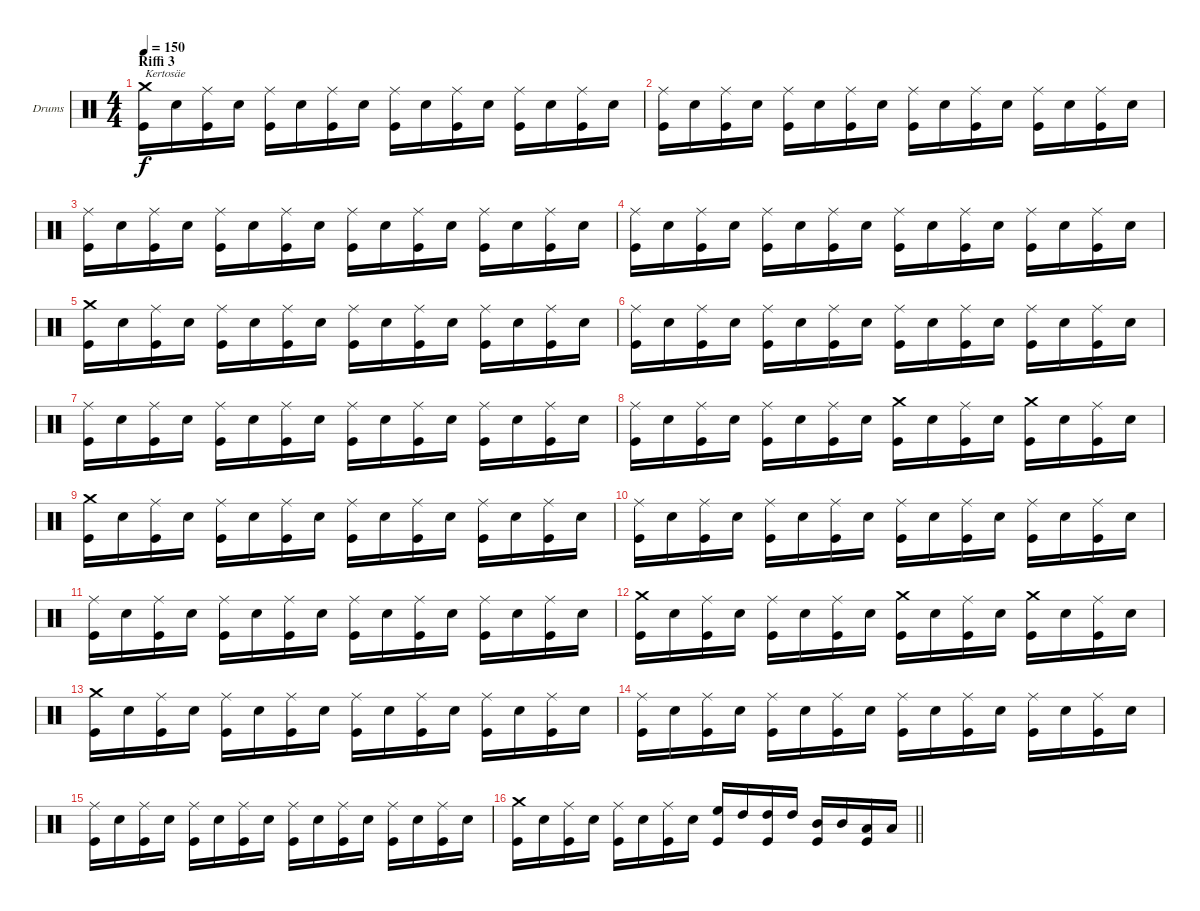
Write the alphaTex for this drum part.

\bracketExtendMode groupsimilarinstruments
\firstSystemTrackNameOrientation horizontal
\otherSystemsTrackNameOrientation horizontal
\track ("Drumkit" "Drums") {instrument percussion}
\staff {score}
\articulation defaults
\ts (4 4)
\section ("" "Riffi 3")
\tempo 150
\clef neutral
\ks c
("Crash medium (hit)" "Kick (hit)").16{txt "Kertosäe" dy f} "Snare (hit) 2".16 ("Ride (middle)" "Kick (hit)").16 "Snare (hit) 2".16 ("Ride (middle)" "Kick (hit)").16 "Snare (hit) 2".16 ("Ride (middle)" "Kick (hit)").16 "Snare (hit) 2".16 ("Ride (middle)" "Kick (hit)").16 "Snare (hit) 2".16 ("Ride (middle)" "Kick (hit)").16 "Snare (hit) 2".16 ("Ride (middle)" "Kick (hit)").16 "Snare (hit) 2".16 ("Ride (middle)" "Kick (hit)").16 "Snare (hit) 2".16 |
("Ride (middle)" "Kick (hit)").16 "Snare (hit) 2".16 ("Ride (middle)" "Kick (hit)").16 "Snare (hit) 2".16 ("Ride (middle)" "Kick (hit)").16 "Snare (hit) 2".16 ("Ride (middle)" "Kick (hit)").16 "Snare (hit) 2".16 ("Ride (middle)" "Kick (hit)").16 "Snare (hit) 2".16 ("Ride (middle)" "Kick (hit)").16 "Snare (hit) 2".16 ("Ride (middle)" "Kick (hit)").16 "Snare (hit) 2".16 ("Ride (middle)" "Kick (hit)").16 "Snare (hit) 2".16 |
("Ride (middle)" "Kick (hit)").16 "Snare (hit) 2".16 ("Ride (middle)" "Kick (hit)").16 "Snare (hit) 2".16 ("Ride (middle)" "Kick (hit)").16 "Snare (hit) 2".16 ("Ride (middle)" "Kick (hit)").16 "Snare (hit) 2".16 ("Ride (middle)" "Kick (hit)").16 "Snare (hit) 2".16 ("Ride (middle)" "Kick (hit)").16 "Snare (hit) 2".16 ("Ride (middle)" "Kick (hit)").16 "Snare (hit) 2".16 ("Ride (middle)" "Kick (hit)").16 "Snare (hit) 2".16 |
("Ride (middle)" "Kick (hit)").16 "Snare (hit) 2".16 ("Ride (middle)" "Kick (hit)").16 "Snare (hit) 2".16 ("Ride (middle)" "Kick (hit)").16 "Snare (hit) 2".16 ("Ride (middle)" "Kick (hit)").16 "Snare (hit) 2".16 ("Ride (middle)" "Kick (hit)").16 "Snare (hit) 2".16 ("Ride (middle)" "Kick (hit)").16 "Snare (hit) 2".16 ("Ride (middle)" "Kick (hit)").16 "Snare (hit) 2".16 ("Ride (middle)" "Kick (hit)").16 "Snare (hit) 2".16 |
("Crash medium (hit)" "Kick (hit)").16 "Snare (hit) 2".16 ("Ride (middle)" "Kick (hit)").16 "Snare (hit) 2".16 ("Ride (middle)" "Kick (hit)").16 "Snare (hit) 2".16 ("Ride (middle)" "Kick (hit)").16 "Snare (hit) 2".16 ("Ride (middle)" "Kick (hit)").16 "Snare (hit) 2".16 ("Ride (middle)" "Kick (hit)").16 "Snare (hit) 2".16 ("Ride (middle)" "Kick (hit)").16 "Snare (hit) 2".16 ("Ride (middle)" "Kick (hit)").16 "Snare (hit) 2".16 |
("Ride (middle)" "Kick (hit)").16 "Snare (hit) 2".16 ("Ride (middle)" "Kick (hit)").16 "Snare (hit) 2".16 ("Ride (middle)" "Kick (hit)").16 "Snare (hit) 2".16 ("Ride (middle)" "Kick (hit)").16 "Snare (hit) 2".16 ("Ride (middle)" "Kick (hit)").16 "Snare (hit) 2".16 ("Ride (middle)" "Kick (hit)").16 "Snare (hit) 2".16 ("Ride (middle)" "Kick (hit)").16 "Snare (hit) 2".16 ("Ride (middle)" "Kick (hit)").16 "Snare (hit) 2".16 |
("Ride (middle)" "Kick (hit)").16 "Snare (hit) 2".16 ("Ride (middle)" "Kick (hit)").16 "Snare (hit) 2".16 ("Ride (middle)" "Kick (hit)").16 "Snare (hit) 2".16 ("Ride (middle)" "Kick (hit)").16 "Snare (hit) 2".16 ("Ride (middle)" "Kick (hit)").16 "Snare (hit) 2".16 ("Ride (middle)" "Kick (hit)").16 "Snare (hit) 2".16 ("Ride (middle)" "Kick (hit)").16 "Snare (hit) 2".16 ("Ride (middle)" "Kick (hit)").16 "Snare (hit) 2".16 |
("Ride (middle)" "Kick (hit)").16 "Snare (hit) 2".16 ("Ride (middle)" "Kick (hit)").16 "Snare (hit) 2".16 ("Ride (middle)" "Kick (hit)").16 "Snare (hit) 2".16 ("Ride (middle)" "Kick (hit)").16 "Snare (hit) 2".16 ("Crash medium (hit)" "Kick (hit)").16 "Snare (hit) 2".16 ("Ride (middle)" "Kick (hit)").16 "Snare (hit) 2".16 ("Crash medium (hit)" "Kick (hit)").16 "Snare (hit) 2".16 ("Ride (middle)" "Kick (hit)").16 "Snare (hit) 2".16 |
("Crash medium (hit)" "Kick (hit)").16 "Snare (hit) 2".16 ("Ride (middle)" "Kick (hit)").16 "Snare (hit) 2".16 ("Ride (middle)" "Kick (hit)").16 "Snare (hit) 2".16 ("Ride (middle)" "Kick (hit)").16 "Snare (hit) 2".16 ("Ride (middle)" "Kick (hit)").16 "Snare (hit) 2".16 ("Ride (middle)" "Kick (hit)").16 "Snare (hit) 2".16 ("Ride (middle)" "Kick (hit)").16 "Snare (hit) 2".16 ("Ride (middle)" "Kick (hit)").16 "Snare (hit) 2".16 |
("Ride (middle)" "Kick (hit)").16 "Snare (hit) 2".16 ("Ride (middle)" "Kick (hit)").16 "Snare (hit) 2".16 ("Ride (middle)" "Kick (hit)").16 "Snare (hit) 2".16 ("Ride (middle)" "Kick (hit)").16 "Snare (hit) 2".16 ("Ride (middle)" "Kick (hit)").16 "Snare (hit) 2".16 ("Ride (middle)" "Kick (hit)").16 "Snare (hit) 2".16 ("Ride (middle)" "Kick (hit)").16 "Snare (hit) 2".16 ("Ride (middle)" "Kick (hit)").16 "Snare (hit) 2".16 |
("Ride (middle)" "Kick (hit)").16 "Snare (hit) 2".16 ("Ride (middle)" "Kick (hit)").16 "Snare (hit) 2".16 ("Ride (middle)" "Kick (hit)").16 "Snare (hit) 2".16 ("Ride (middle)" "Kick (hit)").16 "Snare (hit) 2".16 ("Ride (middle)" "Kick (hit)").16 "Snare (hit) 2".16 ("Ride (middle)" "Kick (hit)").16 "Snare (hit) 2".16 ("Ride (middle)" "Kick (hit)").16 "Snare (hit) 2".16 ("Ride (middle)" "Kick (hit)").16 "Snare (hit) 2".16 |
("Crash medium (hit)" "Kick (hit)").16 "Snare (hit) 2".16 ("Ride (middle)" "Kick (hit)").16 "Snare (hit) 2".16 ("Ride (middle)" "Kick (hit)").16 "Snare (hit) 2".16 ("Ride (middle)" "Kick (hit)").16 "Snare (hit) 2".16 ("Crash medium (hit)" "Kick (hit)").16 "Snare (hit) 2".16 ("Ride (middle)" "Kick (hit)").16 "Snare (hit) 2".16 ("Crash medium (hit)" "Kick (hit)").16 "Snare (hit) 2".16 ("Ride (middle)" "Kick (hit)").16 "Snare (hit) 2".16 |
("Crash medium (hit)" "Kick (hit)").16 "Snare (hit) 2".16 ("Ride (middle)" "Kick (hit)").16 "Snare (hit) 2".16 ("Ride (middle)" "Kick (hit)").16 "Snare (hit) 2".16 ("Ride (middle)" "Kick (hit)").16 "Snare (hit) 2".16 ("Ride (middle)" "Kick (hit)").16 "Snare (hit) 2".16 ("Ride (middle)" "Kick (hit)").16 "Snare (hit) 2".16 ("Ride (middle)" "Kick (hit)").16 "Snare (hit) 2".16 ("Ride (middle)" "Kick (hit)").16 "Snare (hit) 2".16 |
("Ride (middle)" "Kick (hit)").16 "Snare (hit) 2".16 ("Ride (middle)" "Kick (hit)").16 "Snare (hit) 2".16 ("Ride (middle)" "Kick (hit)").16 "Snare (hit) 2".16 ("Ride (middle)" "Kick (hit)").16 "Snare (hit) 2".16 ("Ride (middle)" "Kick (hit)").16 "Snare (hit) 2".16 ("Ride (middle)" "Kick (hit)").16 "Snare (hit) 2".16 ("Ride (middle)" "Kick (hit)").16 "Snare (hit) 2".16 ("Ride (middle)" "Kick (hit)").16 "Snare (hit) 2".16 |
("Ride (middle)" "Kick (hit)").16 "Snare (hit) 2".16 ("Ride (middle)" "Kick (hit)").16 "Snare (hit) 2".16 ("Ride (middle)" "Kick (hit)").16 "Snare (hit) 2".16 ("Ride (middle)" "Kick (hit)").16 "Snare (hit) 2".16 ("Ride (middle)" "Kick (hit)").16 "Snare (hit) 2".16 ("Ride (middle)" "Kick (hit)").16 "Snare (hit) 2".16 ("Ride (middle)" "Kick (hit)").16 "Snare (hit) 2".16 ("Ride (middle)" "Kick (hit)").16 "Snare (hit) 2".16 |
\barLineRight lightlight
("Crash medium (hit)" "Kick (hit)").16 "Snare (hit) 2".16 ("Ride (middle)" "Kick (hit)").16 "Snare (hit) 2".16 ("Ride (middle)" "Kick (hit)").16 "Snare (hit) 2".16 ("Ride (middle)" "Kick (hit)").16 "Snare (hit) 2".16 ("High Floor Tom (hit)" "Kick (hit)").16 "High Tom (hit)".16 ("High Tom (hit)" "Kick (hit)").16 "High Tom (hit)".16 ("Mid Tom (hit)" "Kick (hit)").16 "Mid Tom (hit)".16 ("Low Tom (hit)" "Kick (hit)").16 "Low Tom (hit)".16
